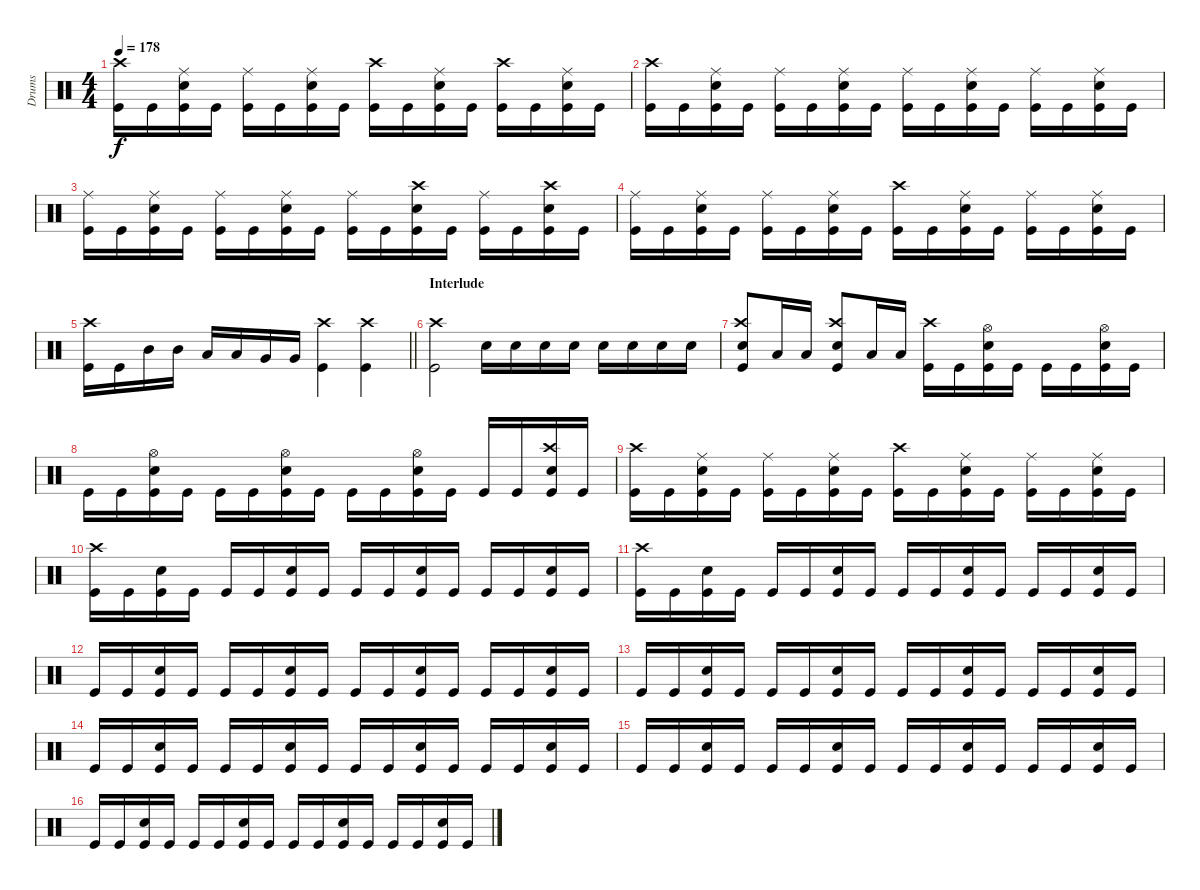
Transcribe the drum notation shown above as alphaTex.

\track ("Drums" "Drums") {instrument percussion}
\staff {score}
\articulation defaults
\ts (4 4)
\tempo 178
\clef neutral
\ks c
("Kick (hit)" "Crash high (hit)").16{dy f} "Kick (hit)".16 ("Kick (hit)" "Snare (hit) 2" "Ride (middle)").16 "Kick (hit)".16 ("Kick (hit)" "Ride (middle)").16 "Kick (hit)".16 ("Kick (hit)" "Snare (hit) 2" "Ride (middle)").16 "Kick (hit)".16 ("Kick (hit)" "Crash high (hit)").16 "Kick (hit)".16 ("Kick (hit)" "Snare (hit) 2" "Ride (middle)").16 "Kick (hit)".16 ("Kick (hit)" "Crash high (hit)").16 "Kick (hit)".16 ("Kick (hit)" "Snare (hit) 2" "Ride (middle)").16 "Kick (hit)".16 |
("Kick (hit)" "Crash high (hit)").16 "Kick (hit)".16 ("Kick (hit)" "Snare (hit) 2" "Ride (middle)").16 "Kick (hit)".16 ("Kick (hit)" "Ride (middle)").16 "Kick (hit)".16 ("Kick (hit)" "Snare (hit) 2" "Ride (middle)").16 "Kick (hit)".16 ("Kick (hit)" "Ride (middle)").16 "Kick (hit)".16 ("Kick (hit)" "Snare (hit) 2" "Ride (middle)").16 "Kick (hit)".16 ("Kick (hit)" "Ride (middle)").16 "Kick (hit)".16 ("Kick (hit)" "Snare (hit) 2" "Ride (middle)").16 "Kick (hit)".16 |
("Kick (hit)" "Ride (middle)").16 "Kick (hit)".16 ("Kick (hit)" "Snare (hit) 2" "Ride (middle)").16 "Kick (hit)".16 ("Kick (hit)" "Ride (middle)").16 "Kick (hit)".16 ("Kick (hit)" "Snare (hit) 2" "Ride (middle)").16 "Kick (hit)".16 ("Kick (hit)" "Ride (middle)").16 "Kick (hit)".16 ("Kick (hit)" "Snare (hit) 2" "Crash high (hit)").16 "Kick (hit)".16 ("Kick (hit)" "Ride (middle)").16 "Kick (hit)".16 ("Kick (hit)" "Snare (hit) 2" "Crash high (hit)").16 "Kick (hit)".16 |
("Kick (hit)" "Ride (middle)").16 "Kick (hit)".16 ("Kick (hit)" "Snare (hit) 2" "Ride (middle)").16 "Kick (hit)".16 ("Kick (hit)" "Ride (middle)").16 "Kick (hit)".16 ("Kick (hit)" "Snare (hit) 2" "Ride (middle)").16 "Kick (hit)".16 ("Kick (hit)" "Crash high (hit)").16 "Kick (hit)".16 ("Kick (hit)" "Snare (hit) 2" "Ride (middle)").16 "Kick (hit)".16 ("Kick (hit)" "Ride (middle)").16 "Kick (hit)".16 ("Kick (hit)" "Snare (hit) 2" "Ride (middle)").16 "Kick (hit)".16 |
\barLineRight lightlight
("Kick (hit)" "Crash high (hit)").16 "Kick (hit)".16 "Mid Tom (hit)".16 "Mid Tom (hit)".16 "Low Tom (hit)".16 "Low Tom (hit)".16 "Very Low Tom (hit)".16 "Very Low Tom (hit)".16 ("Kick (hit)" "Crash high (hit)").4 ("Kick (hit)" "Crash high (hit)").4 |
\section ("" "Interlude")
("Crash high (hit)" "Kick (hit)").2 "Snare (hit) 2".16 "Snare (hit) 2".16 "Snare (hit) 2".16 "Snare (hit) 2".16 "Snare (hit) 2".16 "Snare (hit) 2".16 "Snare (hit) 2".16 "Snare (hit) 2".16 |
("Snare (hit) 2" "Crash high (hit)" "Kick (hit)").8 "Low Tom (hit)".16 "Low Tom (hit)".16 ("Snare (hit) 2" "Crash high (hit)" "Kick (hit)").8 "Low Tom (hit)".16 "Low Tom (hit)".16 ("Crash high (hit)" "Kick (hit)").16 "Kick (hit)".16 ("Kick (hit)" "Snare (hit) 2" "Hi-Hat (open)").16 "Kick (hit)".16 "Kick (hit)".16 "Kick (hit)".16 ("Kick (hit)" "Snare (hit) 2" "Hi-Hat (open)").16 "Kick (hit)".16 |
"Kick (hit)".16 "Kick (hit)".16 ("Kick (hit)" "Snare (hit) 2" "Hi-Hat (open)").16 "Kick (hit)".16 "Kick (hit)".16 "Kick (hit)".16 ("Kick (hit)" "Snare (hit) 2" "Hi-Hat (open)").16 "Kick (hit)".16 "Kick (hit)".16 "Kick (hit)".16 ("Kick (hit)" "Snare (hit) 2" "Hi-Hat (open)").16 "Kick (hit)".16 "Kick (hit)".16 "Kick (hit)".16 ("Kick (hit)" "Snare (hit) 2" "Crash high (hit)").16 "Kick (hit)".16 |
("Kick (hit)" "Crash high (hit)").16 "Kick (hit)".16 ("Kick (hit)" "Snare (hit) 2" "Ride (middle)").16 "Kick (hit)".16 ("Kick (hit)" "Ride (middle)").16 "Kick (hit)".16 ("Kick (hit)" "Snare (hit) 2" "Ride (middle)").16 "Kick (hit)".16 ("Kick (hit)" "Crash high (hit)").16 "Kick (hit)".16 ("Kick (hit)" "Snare (hit) 2" "Ride (middle)").16 "Kick (hit)".16 ("Kick (hit)" "Ride (middle)").16 "Kick (hit)".16 ("Kick (hit)" "Snare (hit) 2" "Ride (middle)").16 "Kick (hit)".16 |
("Kick (hit)" "Crash high (hit)").16 "Kick (hit)".16 ("Kick (hit)" "Snare (hit) 2").16 "Kick (hit)".16 "Kick (hit)".16 "Kick (hit)".16 ("Kick (hit)" "Snare (hit) 2").16 "Kick (hit)".16 "Kick (hit)".16 "Kick (hit)".16 ("Kick (hit)" "Snare (hit) 2").16 "Kick (hit)".16 "Kick (hit)".16 "Kick (hit)".16 ("Kick (hit)" "Snare (hit) 2").16 "Kick (hit)".16 |
("Kick (hit)" "Crash high (hit)").16 "Kick (hit)".16 ("Kick (hit)" "Snare (hit) 2").16 "Kick (hit)".16 "Kick (hit)".16 "Kick (hit)".16 ("Kick (hit)" "Snare (hit) 2").16 "Kick (hit)".16 "Kick (hit)".16 "Kick (hit)".16 ("Kick (hit)" "Snare (hit) 2").16 "Kick (hit)".16 "Kick (hit)".16 "Kick (hit)".16 ("Kick (hit)" "Snare (hit) 2").16 "Kick (hit)".16 |
"Kick (hit)".16 "Kick (hit)".16 ("Kick (hit)" "Snare (hit) 2").16 "Kick (hit)".16 "Kick (hit)".16 "Kick (hit)".16 ("Kick (hit)" "Snare (hit) 2").16 "Kick (hit)".16 "Kick (hit)".16 "Kick (hit)".16 ("Kick (hit)" "Snare (hit) 2").16 "Kick (hit)".16 "Kick (hit)".16 "Kick (hit)".16 ("Kick (hit)" "Snare (hit) 2").16 "Kick (hit)".16 |
"Kick (hit)".16 "Kick (hit)".16 ("Kick (hit)" "Snare (hit) 2").16 "Kick (hit)".16 "Kick (hit)".16 "Kick (hit)".16 ("Kick (hit)" "Snare (hit) 2").16 "Kick (hit)".16 "Kick (hit)".16 "Kick (hit)".16 ("Kick (hit)" "Snare (hit) 2").16 "Kick (hit)".16 "Kick (hit)".16 "Kick (hit)".16 ("Kick (hit)" "Snare (hit) 2").16 "Kick (hit)".16 |
"Kick (hit)".16 "Kick (hit)".16 ("Kick (hit)" "Snare (hit) 2").16 "Kick (hit)".16 "Kick (hit)".16 "Kick (hit)".16 ("Kick (hit)" "Snare (hit) 2").16 "Kick (hit)".16 "Kick (hit)".16 "Kick (hit)".16 ("Kick (hit)" "Snare (hit) 2").16 "Kick (hit)".16 "Kick (hit)".16 "Kick (hit)".16 ("Kick (hit)" "Snare (hit) 2").16 "Kick (hit)".16 |
"Kick (hit)".16 "Kick (hit)".16 ("Kick (hit)" "Snare (hit) 2").16 "Kick (hit)".16 "Kick (hit)".16 "Kick (hit)".16 ("Kick (hit)" "Snare (hit) 2").16 "Kick (hit)".16 "Kick (hit)".16 "Kick (hit)".16 ("Kick (hit)" "Snare (hit) 2").16 "Kick (hit)".16 "Kick (hit)".16 "Kick (hit)".16 ("Kick (hit)" "Snare (hit) 2").16 "Kick (hit)".16 |
"Kick (hit)".16 "Kick (hit)".16 ("Kick (hit)" "Snare (hit) 2").16 "Kick (hit)".16 "Kick (hit)".16 "Kick (hit)".16 ("Kick (hit)" "Snare (hit) 2").16 "Kick (hit)".16 "Kick (hit)".16 "Kick (hit)".16 ("Kick (hit)" "Snare (hit) 2").16 "Kick (hit)".16 "Kick (hit)".16 "Kick (hit)".16 ("Kick (hit)" "Snare (hit) 2").16 "Kick (hit)".16
